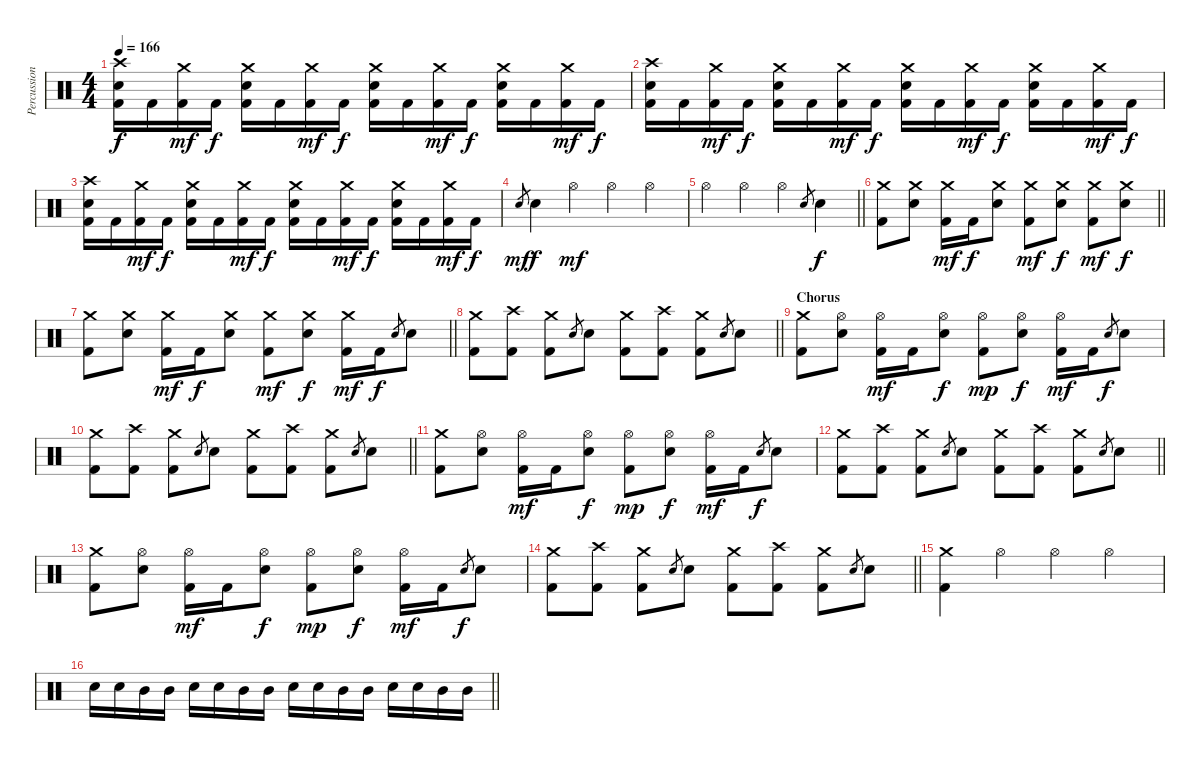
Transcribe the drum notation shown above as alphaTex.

\track ("Percussion" "Percussion") {instrument percussion}
\staff {score}
\articulation defaults
\ts (4 4)
\tempo 166
\clef neutral
\ks c
("Crash high (hit)" "Electric Snare (hit)" "Kick (hit) 2").16{dy f} "Kick (hit) 2".16 ("Crash medium (hit)" "Kick (hit) 2").16{dy mf} "Kick (hit) 2".16{dy f} ("Crash medium (hit)" "Electric Snare (hit)" "Kick (hit) 2").16 "Kick (hit) 2".16 ("Crash medium (hit)" "Kick (hit) 2").16{dy mf} "Kick (hit) 2".16{dy f} ("Crash medium (hit)" "Electric Snare (hit)" "Kick (hit) 2").16 "Kick (hit) 2".16 ("Crash medium (hit)" "Kick (hit) 2").16{dy mf} "Kick (hit) 2".16{dy f} ("Crash medium (hit)" "Electric Snare (hit)" "Kick (hit) 2").16 "Kick (hit) 2".16 ("Crash medium (hit)" "Kick (hit) 2").16{dy mf} "Kick (hit) 2".16{dy f} |
("Crash high (hit)" "Electric Snare (hit)" "Kick (hit) 2").16 "Kick (hit) 2".16 ("Crash medium (hit)" "Kick (hit) 2").16{dy mf} "Kick (hit) 2".16{dy f} ("Crash medium (hit)" "Electric Snare (hit)" "Kick (hit) 2").16 "Kick (hit) 2".16 ("Crash medium (hit)" "Kick (hit) 2").16{dy mf} "Kick (hit) 2".16{dy f} ("Crash medium (hit)" "Electric Snare (hit)" "Kick (hit) 2").16 "Kick (hit) 2".16 ("Crash medium (hit)" "Kick (hit) 2").16{dy mf} "Kick (hit) 2".16{dy f} ("Crash medium (hit)" "Electric Snare (hit)" "Kick (hit) 2").16 "Kick (hit) 2".16 ("Crash medium (hit)" "Kick (hit) 2").16{dy mf} "Kick (hit) 2".16{dy f} |
("Crash high (hit)" "Electric Snare (hit)" "Kick (hit) 2").16 "Kick (hit) 2".16 ("Crash medium (hit)" "Kick (hit) 2").16{dy mf} "Kick (hit) 2".16{dy f} ("Crash medium (hit)" "Electric Snare (hit)" "Kick (hit) 2").16 "Kick (hit) 2".16 ("Crash medium (hit)" "Kick (hit) 2").16{dy mf} "Kick (hit) 2".16{dy f} ("Crash medium (hit)" "Electric Snare (hit)" "Kick (hit) 2").16 "Kick (hit) 2".16 ("Crash medium (hit)" "Kick (hit) 2").16{dy mf} "Kick (hit) 2".16{dy f} ("Crash medium (hit)" "Electric Snare (hit)" "Kick (hit) 2").16 "Kick (hit) 2".16 ("Crash medium (hit)" "Kick (hit) 2").16{dy mf} "Kick (hit) 2".16{dy f} |
"Electric Snare (hit)".8{gr dy mf} "Electric Snare (hit)".4{dy f} "Hi-Hat (open)".4{dy mf} "Hi-Hat (open)".4 "Hi-Hat (open)".4 |
\barLineRight lightlight "Hi-Hat (open)".4 "Hi-Hat (open)".4 "Hi-Hat (open)".4 "Electric Snare (hit)".8{gr} "Electric Snare (hit)".4{dy f}
|
\barLineRight lightlight
("Crash medium (hit)" "Kick (hit) 2").8 ("Crash medium (hit)" "Electric Snare (hit)").8 ("Crash medium (hit)" "Kick (hit) 2").16{dy mf} "Kick (hit) 2".16{dy f} ("Crash medium (hit)" "Electric Snare (hit)").8 ("Crash medium (hit)" "Kick (hit) 2").8{dy mf} ("Crash medium (hit)" "Electric Snare (hit)").8{dy f} ("Crash medium (hit)" "Kick (hit) 2").8{dy mf} ("Crash medium (hit)" "Electric Snare (hit)").8{dy f} |
\barLineRight lightlight
("Crash medium (hit)" "Kick (hit) 2").8 ("Crash medium (hit)" "Electric Snare (hit)").8 ("Crash medium (hit)" "Kick (hit) 2").16{dy mf} "Kick (hit) 2".16{dy f} ("Crash medium (hit)" "Electric Snare (hit)").8 ("Crash medium (hit)" "Kick (hit) 2").8{dy mf} ("Crash medium (hit)" "Electric Snare (hit)").8{dy f} ("Crash medium (hit)" "Kick (hit) 2").16{dy mf} "Kick (hit) 2".16{dy f} "Electric Snare (hit)".8{gr} "Electric Snare (hit)".8 |
\barLineRight lightlight
("Crash medium (hit)" "Kick (hit) 2").8 ("Crash high (hit)" "Kick (hit) 2").8 ("Crash medium (hit)" "Kick (hit) 2").8 "Electric Snare (hit)".8{gr} "Electric Snare (hit)".8 ("Crash medium (hit)" "Kick (hit) 2").8 ("Crash high (hit)" "Kick (hit) 2").8 ("Crash medium (hit)" "Kick (hit) 2").8 "Electric Snare (hit)".8{gr} "Electric Snare (hit)".8 |
\section ("" "Chorus")
("Crash medium (hit)" "Kick (hit) 2").8 ("Hi-Hat (open)" "Electric Snare (hit)").8 ("Hi-Hat (open)" "Kick (hit) 2").16{dy mf} "Kick (hit) 2".16 ("Hi-Hat (open)" "Electric Snare (hit)").8{dy f} ("Hi-Hat (open)" "Kick (hit) 2").8{dy mp} ("Hi-Hat (open)" "Electric Snare (hit)").8{dy f} ("Hi-Hat (open)" "Kick (hit) 2").16{dy mf} "Kick (hit) 2".16 "Electric Snare (hit)".8{gr dy f} "Electric Snare (hit)".8 |
\barLineRight lightlight
("Crash medium (hit)" "Kick (hit) 2").8 ("Crash high (hit)" "Kick (hit) 2").8 ("Crash medium (hit)" "Kick (hit) 2").8 "Electric Snare (hit)".8{gr} "Electric Snare (hit)".8 ("Crash medium (hit)" "Kick (hit) 2").8 ("Crash high (hit)" "Kick (hit) 2").8 ("Crash medium (hit)" "Kick (hit) 2").8 "Electric Snare (hit)".8{gr} "Electric Snare (hit)".8 |
("Crash medium (hit)" "Kick (hit) 2").8 ("Hi-Hat (open)" "Electric Snare (hit)").8 ("Hi-Hat (open)" "Kick (hit) 2").16{dy mf} "Kick (hit) 2".16 ("Hi-Hat (open)" "Electric Snare (hit)").8{dy f} ("Hi-Hat (open)" "Kick (hit) 2").8{dy mp} ("Hi-Hat (open)" "Electric Snare (hit)").8{dy f} ("Hi-Hat (open)" "Kick (hit) 2").16{dy mf} "Kick (hit) 2".16 "Electric Snare (hit)".8{gr dy f} "Electric Snare (hit)".8 |
\barLineRight lightlight
("Crash medium (hit)" "Kick (hit) 2").8 ("Crash high (hit)" "Kick (hit) 2").8 ("Crash medium (hit)" "Kick (hit) 2").8 "Electric Snare (hit)".8{gr} "Electric Snare (hit)".8 ("Crash medium (hit)" "Kick (hit) 2").8 ("Crash high (hit)" "Kick (hit) 2").8 ("Crash medium (hit)" "Kick (hit) 2").8 "Electric Snare (hit)".8{gr} "Electric Snare (hit)".8 |
("Crash medium (hit)" "Kick (hit) 2").8 ("Hi-Hat (open)" "Electric Snare (hit)").8 ("Hi-Hat (open)" "Kick (hit) 2").16{dy mf} "Kick (hit) 2".16 ("Hi-Hat (open)" "Electric Snare (hit)").8{dy f} ("Hi-Hat (open)" "Kick (hit) 2").8{dy mp} ("Hi-Hat (open)" "Electric Snare (hit)").8{dy f} ("Hi-Hat (open)" "Kick (hit) 2").16{dy mf} "Kick (hit) 2".16 "Electric Snare (hit)".8{gr dy f} "Electric Snare (hit)".8 |
\barLineRight lightlight
("Crash medium (hit)" "Kick (hit) 2").8 ("Crash high (hit)" "Kick (hit) 2").8 ("Crash medium (hit)" "Kick (hit) 2").8 "Electric Snare (hit)".8{gr} "Electric Snare (hit)".8 ("Crash medium (hit)" "Kick (hit) 2").8 ("Crash high (hit)" "Kick (hit) 2").8 ("Crash medium (hit)" "Kick (hit) 2").8 "Electric Snare (hit)".8{gr} "Electric Snare (hit)".8 |
("Crash medium (hit)" "Kick (hit) 2").4 "Hi-Hat (open)".4 "Hi-Hat (open)".4 "Hi-Hat (open)".4 |
\barLineRight lightlight "Electric Snare (hit)".16 "Electric Snare (hit)".16 "Mid Tom (hit)".16 "Mid Tom (hit)".16 "Electric Snare (hit)".16 "Electric Snare (hit)".16 "Mid Tom (hit)".16 "Mid Tom (hit)".16 "Electric Snare (hit)".16 "Electric Snare (hit)".16 "Mid Tom (hit)".16 "Mid Tom (hit)".16 "Electric Snare (hit)".16 "Electric Snare (hit)".16 "Mid Tom (hit)".16 "Mid Tom (hit)".16
